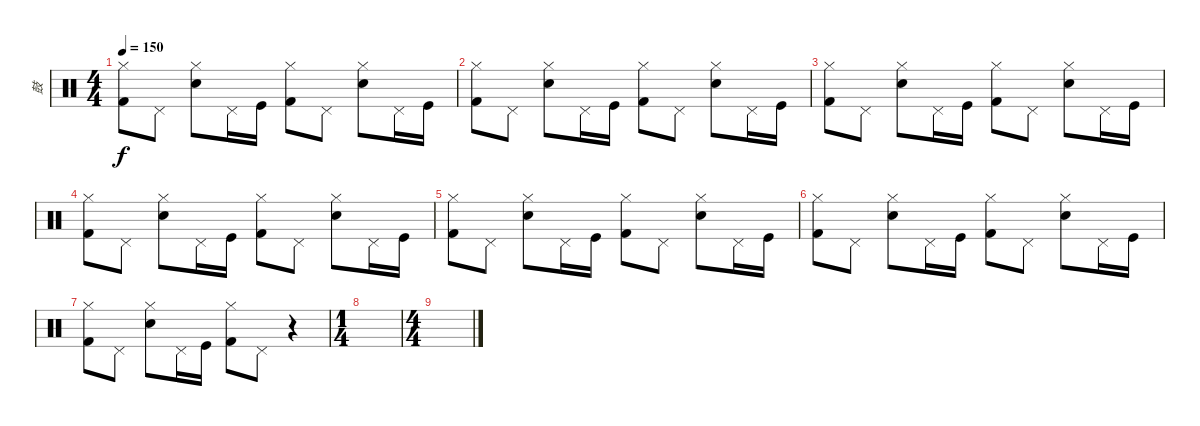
\track ("鼓" "鼓") {instrument percussion}
\staff {score}
\articulation defaults
\ts (4 4)
\tempo 150
\clef neutral
\ks c
("Hi-Hat (closed)" "Kick (hit) 2").8{dy f} "Pedal Hi-Hat (hit)".8 ("Hi-Hat (closed)" "Electric Snare (hit)").8 "Pedal Hi-Hat (hit)".16 "Kick (hit)".16 ("Hi-Hat (closed)" "Kick (hit) 2").8 "Pedal Hi-Hat (hit)".8 ("Hi-Hat (closed)" "Electric Snare (hit)").8 "Pedal Hi-Hat (hit)".16 "Kick (hit)".16 |
("Hi-Hat (closed)" "Kick (hit) 2").8 "Pedal Hi-Hat (hit)".8 ("Hi-Hat (closed)" "Electric Snare (hit)").8 "Pedal Hi-Hat (hit)".16 "Kick (hit)".16 ("Hi-Hat (closed)" "Kick (hit) 2").8 "Pedal Hi-Hat (hit)".8 ("Hi-Hat (closed)" "Electric Snare (hit)").8 "Pedal Hi-Hat (hit)".16 "Kick (hit)".16 |
("Hi-Hat (closed)" "Kick (hit) 2").8 "Pedal Hi-Hat (hit)".8 ("Hi-Hat (closed)" "Electric Snare (hit)").8 "Pedal Hi-Hat (hit)".16 "Kick (hit)".16 ("Hi-Hat (closed)" "Kick (hit) 2").8 "Pedal Hi-Hat (hit)".8 ("Hi-Hat (closed)" "Electric Snare (hit)").8 "Pedal Hi-Hat (hit)".16 "Kick (hit)".16 |
("Hi-Hat (closed)" "Kick (hit) 2").8 "Pedal Hi-Hat (hit)".8 ("Hi-Hat (closed)" "Electric Snare (hit)").8 "Pedal Hi-Hat (hit)".16 "Kick (hit)".16 ("Hi-Hat (closed)" "Kick (hit) 2").8 "Pedal Hi-Hat (hit)".8 ("Hi-Hat (closed)" "Electric Snare (hit)").8 "Pedal Hi-Hat (hit)".16 "Kick (hit)".16 |
("Hi-Hat (closed)" "Kick (hit) 2").8 "Pedal Hi-Hat (hit)".8 ("Hi-Hat (closed)" "Electric Snare (hit)").8 "Pedal Hi-Hat (hit)".16 "Kick (hit)".16 ("Hi-Hat (closed)" "Kick (hit) 2").8 "Pedal Hi-Hat (hit)".8 ("Hi-Hat (closed)" "Electric Snare (hit)").8 "Pedal Hi-Hat (hit)".16 "Kick (hit)".16 |
("Hi-Hat (closed)" "Kick (hit) 2").8 "Pedal Hi-Hat (hit)".8 ("Hi-Hat (closed)" "Electric Snare (hit)").8 "Pedal Hi-Hat (hit)".16 "Kick (hit)".16 ("Hi-Hat (closed)" "Kick (hit) 2").8 "Pedal Hi-Hat (hit)".8 ("Hi-Hat (closed)" "Electric Snare (hit)").8 "Pedal Hi-Hat (hit)".16 "Kick (hit)".16 |
("Hi-Hat (closed)" "Kick (hit) 2").8 "Pedal Hi-Hat (hit)".8 ("Hi-Hat (closed)" "Electric Snare (hit)").8 "Pedal Hi-Hat (hit)".16 "Kick (hit)".16 ("Hi-Hat (closed)" "Kick (hit) 2").8 "Pedal Hi-Hat (hit)".8 r.4 |
\ts (1 4)
|
\ts (4 4)
